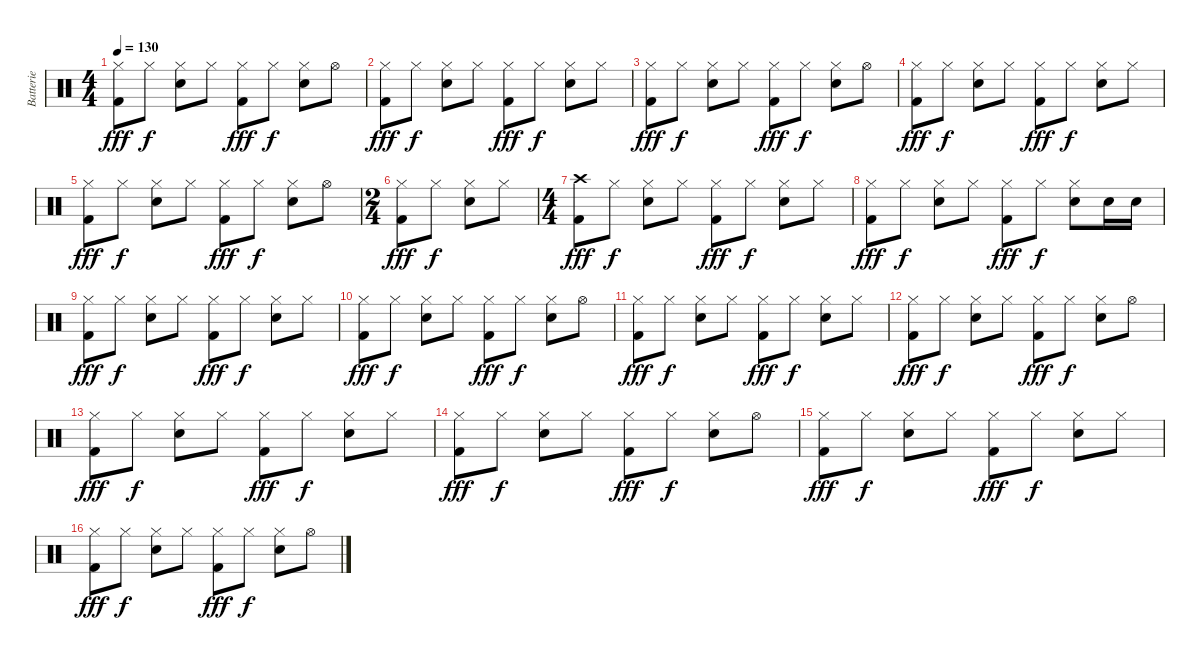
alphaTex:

\track ("Batterie" "Batterie") {instrument percussion}
\staff {score}
\articulation defaults
\ts (4 4)
\tempo 130
\clef neutral
\ks c
("Hi-Hat (closed)" "Kick (hit) 2").8{dy fff} "Hi-Hat (closed)".8{dy f} ("Hi-Hat (closed)" "Snare (hit) 2").8 "Hi-Hat (closed)".8 ("Hi-Hat (closed)" "Kick (hit) 2").8{dy fff} "Hi-Hat (closed)".8{dy f} ("Hi-Hat (closed)" "Snare (hit) 2").8 "Hi-Hat (open)".8 |
("Hi-Hat (closed)" "Kick (hit) 2").8{dy fff} "Hi-Hat (closed)".8{dy f} ("Hi-Hat (closed)" "Snare (hit) 2").8 "Hi-Hat (closed)".8 ("Hi-Hat (closed)" "Kick (hit) 2").8{dy fff} "Hi-Hat (closed)".8{dy f} ("Hi-Hat (closed)" "Snare (hit) 2").8 "Hi-Hat (closed)".8 |
("Hi-Hat (closed)" "Kick (hit) 2").8{dy fff} "Hi-Hat (closed)".8{dy f} ("Hi-Hat (closed)" "Snare (hit) 2").8 "Hi-Hat (closed)".8 ("Hi-Hat (closed)" "Kick (hit) 2").8{dy fff} "Hi-Hat (closed)".8{dy f} ("Hi-Hat (closed)" "Snare (hit) 2").8 "Hi-Hat (open)".8 |
("Hi-Hat (closed)" "Kick (hit) 2").8{dy fff} "Hi-Hat (closed)".8{dy f} ("Hi-Hat (closed)" "Snare (hit) 2").8 "Hi-Hat (closed)".8 ("Hi-Hat (closed)" "Kick (hit) 2").8{dy fff} "Hi-Hat (closed)".8{dy f} ("Hi-Hat (closed)" "Snare (hit) 2").8 "Hi-Hat (closed)".8 |
("Hi-Hat (closed)" "Kick (hit) 2").8{dy fff} "Hi-Hat (closed)".8{dy f} ("Hi-Hat (closed)" "Snare (hit) 2").8 "Hi-Hat (closed)".8 ("Hi-Hat (closed)" "Kick (hit) 2").8{dy fff} "Hi-Hat (closed)".8{dy f} ("Hi-Hat (closed)" "Snare (hit) 2").8 "Hi-Hat (open)".8 |
\ts (2 4)
("Hi-Hat (closed)" "Kick (hit) 2").8{dy fff} "Hi-Hat (closed)".8{dy f} ("Hi-Hat (closed)" "Snare (hit) 2").8 "Hi-Hat (closed)".8 |
\ts (4 4)
("Crash high (hit)" "Kick (hit) 2").8{dy fff} "Hi-Hat (closed)".8{dy f} ("Hi-Hat (closed)" "Snare (hit) 2").8 "Hi-Hat (closed)".8 ("Hi-Hat (closed)" "Kick (hit) 2").8{dy fff} "Hi-Hat (closed)".8{dy f} ("Hi-Hat (closed)" "Snare (hit) 2").8 "Hi-Hat (closed)".8 |
("Hi-Hat (closed)" "Kick (hit) 2").8{dy fff} "Hi-Hat (closed)".8{dy f} ("Hi-Hat (closed)" "Snare (hit) 2").8 "Hi-Hat (closed)".8 ("Hi-Hat (closed)" "Kick (hit) 2").8{dy fff} "Hi-Hat (closed)".8{dy f} ("Hi-Hat (closed)" "Snare (hit) 2").8 "Snare (hit) 2".16 "Snare (hit) 2".16 |
("Hi-Hat (closed)" "Kick (hit) 2").8{dy fff} "Hi-Hat (closed)".8{dy f} ("Hi-Hat (closed)" "Snare (hit) 2").8 "Hi-Hat (closed)".8 ("Hi-Hat (closed)" "Kick (hit) 2").8{dy fff} "Hi-Hat (closed)".8{dy f} ("Hi-Hat (closed)" "Snare (hit) 2").8 "Hi-Hat (closed)".8 |
("Hi-Hat (closed)" "Kick (hit) 2").8{dy fff} "Hi-Hat (closed)".8{dy f} ("Hi-Hat (closed)" "Snare (hit) 2").8 "Hi-Hat (closed)".8 ("Hi-Hat (closed)" "Kick (hit) 2").8{dy fff} "Hi-Hat (closed)".8{dy f} ("Hi-Hat (closed)" "Snare (hit) 2").8 "Hi-Hat (open)".8 |
("Hi-Hat (closed)" "Kick (hit) 2").8{dy fff} "Hi-Hat (closed)".8{dy f} ("Hi-Hat (closed)" "Snare (hit) 2").8 "Hi-Hat (closed)".8 ("Hi-Hat (closed)" "Kick (hit) 2").8{dy fff} "Hi-Hat (closed)".8{dy f} ("Hi-Hat (closed)" "Snare (hit) 2").8 "Hi-Hat (closed)".8 |
("Hi-Hat (closed)" "Kick (hit) 2").8{dy fff} "Hi-Hat (closed)".8{dy f} ("Hi-Hat (closed)" "Snare (hit) 2").8 "Hi-Hat (closed)".8 ("Hi-Hat (closed)" "Kick (hit) 2").8{dy fff} "Hi-Hat (closed)".8{dy f} ("Hi-Hat (closed)" "Snare (hit) 2").8 "Hi-Hat (open)".8 |
("Hi-Hat (closed)" "Kick (hit) 2").8{dy fff} "Hi-Hat (closed)".8{dy f} ("Hi-Hat (closed)" "Snare (hit) 2").8 "Hi-Hat (closed)".8 ("Hi-Hat (closed)" "Kick (hit) 2").8{dy fff} "Hi-Hat (closed)".8{dy f} ("Hi-Hat (closed)" "Snare (hit) 2").8 "Hi-Hat (closed)".8 |
("Hi-Hat (closed)" "Kick (hit) 2").8{dy fff} "Hi-Hat (closed)".8{dy f} ("Hi-Hat (closed)" "Snare (hit) 2").8 "Hi-Hat (closed)".8 ("Hi-Hat (closed)" "Kick (hit) 2").8{dy fff} "Hi-Hat (closed)".8{dy f} ("Hi-Hat (closed)" "Snare (hit) 2").8 "Hi-Hat (open)".8 |
("Hi-Hat (closed)" "Kick (hit) 2").8{dy fff} "Hi-Hat (closed)".8{dy f} ("Hi-Hat (closed)" "Snare (hit) 2").8 "Hi-Hat (closed)".8 ("Hi-Hat (closed)" "Kick (hit) 2").8{dy fff} "Hi-Hat (closed)".8{dy f} ("Hi-Hat (closed)" "Snare (hit) 2").8 "Hi-Hat (closed)".8 |
("Hi-Hat (closed)" "Kick (hit) 2").8{dy fff} "Hi-Hat (closed)".8{dy f} ("Hi-Hat (closed)" "Snare (hit) 2").8 "Hi-Hat (closed)".8 ("Hi-Hat (closed)" "Kick (hit) 2").8{dy fff} "Hi-Hat (closed)".8{dy f} ("Hi-Hat (closed)" "Snare (hit) 2").8 "Hi-Hat (open)".8
